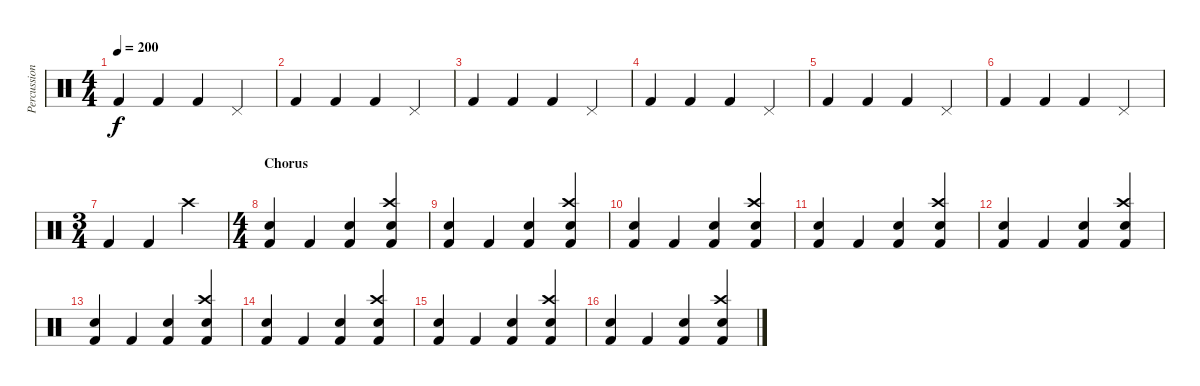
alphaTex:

\track ("Percussion" "Percussion") {instrument percussion}
\staff {score}
\articulation defaults
\ts (4 4)
\tempo 200
\clef neutral
\ks c "Kick (hit) 2".4{dy f} "Kick (hit) 2".4 "Kick (hit) 2".4 "Pedal Hi-Hat (hit)".4
|
"Kick (hit) 2".4 "Kick (hit) 2".4 "Kick (hit) 2".4 "Pedal Hi-Hat (hit)".4 |
"Kick (hit) 2".4 "Kick (hit) 2".4 "Kick (hit) 2".4 "Pedal Hi-Hat (hit)".4 |
"Kick (hit) 2".4 "Kick (hit) 2".4 "Kick (hit) 2".4 "Pedal Hi-Hat (hit)".4 |
"Kick (hit) 2".4 "Kick (hit) 2".4 "Kick (hit) 2".4 "Pedal Hi-Hat (hit)".4 |
"Kick (hit) 2".4 "Kick (hit) 2".4 "Kick (hit) 2".4 "Pedal Hi-Hat (hit)".4 |
\ts (3 4)
"Kick (hit) 2".4 "Kick (hit) 2".4 "Crash high (hit)".4 |
\ts (4 4)
\section ("" "Chorus")
("Snare (hit) 2" "Kick (hit) 2").4 "Kick (hit) 2".4 ("Snare (hit) 2" "Kick (hit) 2").4 ("Crash high (hit)" "Snare (hit) 2" "Kick (hit) 2").4 |
("Snare (hit) 2" "Kick (hit) 2").4 "Kick (hit) 2".4 ("Snare (hit) 2" "Kick (hit) 2").4 ("Crash high (hit)" "Snare (hit) 2" "Kick (hit) 2").4 |
("Snare (hit) 2" "Kick (hit) 2").4 "Kick (hit) 2".4 ("Snare (hit) 2" "Kick (hit) 2").4 ("Crash high (hit)" "Snare (hit) 2" "Kick (hit) 2").4 |
("Snare (hit) 2" "Kick (hit) 2").4 "Kick (hit) 2".4 ("Snare (hit) 2" "Kick (hit) 2").4 ("Crash high (hit)" "Snare (hit) 2" "Kick (hit) 2").4 |
("Snare (hit) 2" "Kick (hit) 2").4 "Kick (hit) 2".4 ("Snare (hit) 2" "Kick (hit) 2").4 ("Crash high (hit)" "Snare (hit) 2" "Kick (hit) 2").4 |
("Snare (hit) 2" "Kick (hit) 2").4 "Kick (hit) 2".4 ("Snare (hit) 2" "Kick (hit) 2").4 ("Crash high (hit)" "Snare (hit) 2" "Kick (hit) 2").4 |
("Snare (hit) 2" "Kick (hit) 2").4 "Kick (hit) 2".4 ("Snare (hit) 2" "Kick (hit) 2").4 ("Crash high (hit)" "Snare (hit) 2" "Kick (hit) 2").4 |
("Snare (hit) 2" "Kick (hit) 2").4 "Kick (hit) 2".4 ("Snare (hit) 2" "Kick (hit) 2").4 ("Crash high (hit)" "Snare (hit) 2" "Kick (hit) 2").4 |
("Snare (hit) 2" "Kick (hit) 2").4 "Kick (hit) 2".4 ("Snare (hit) 2" "Kick (hit) 2").4 ("Crash high (hit)" "Snare (hit) 2" "Kick (hit) 2").4
